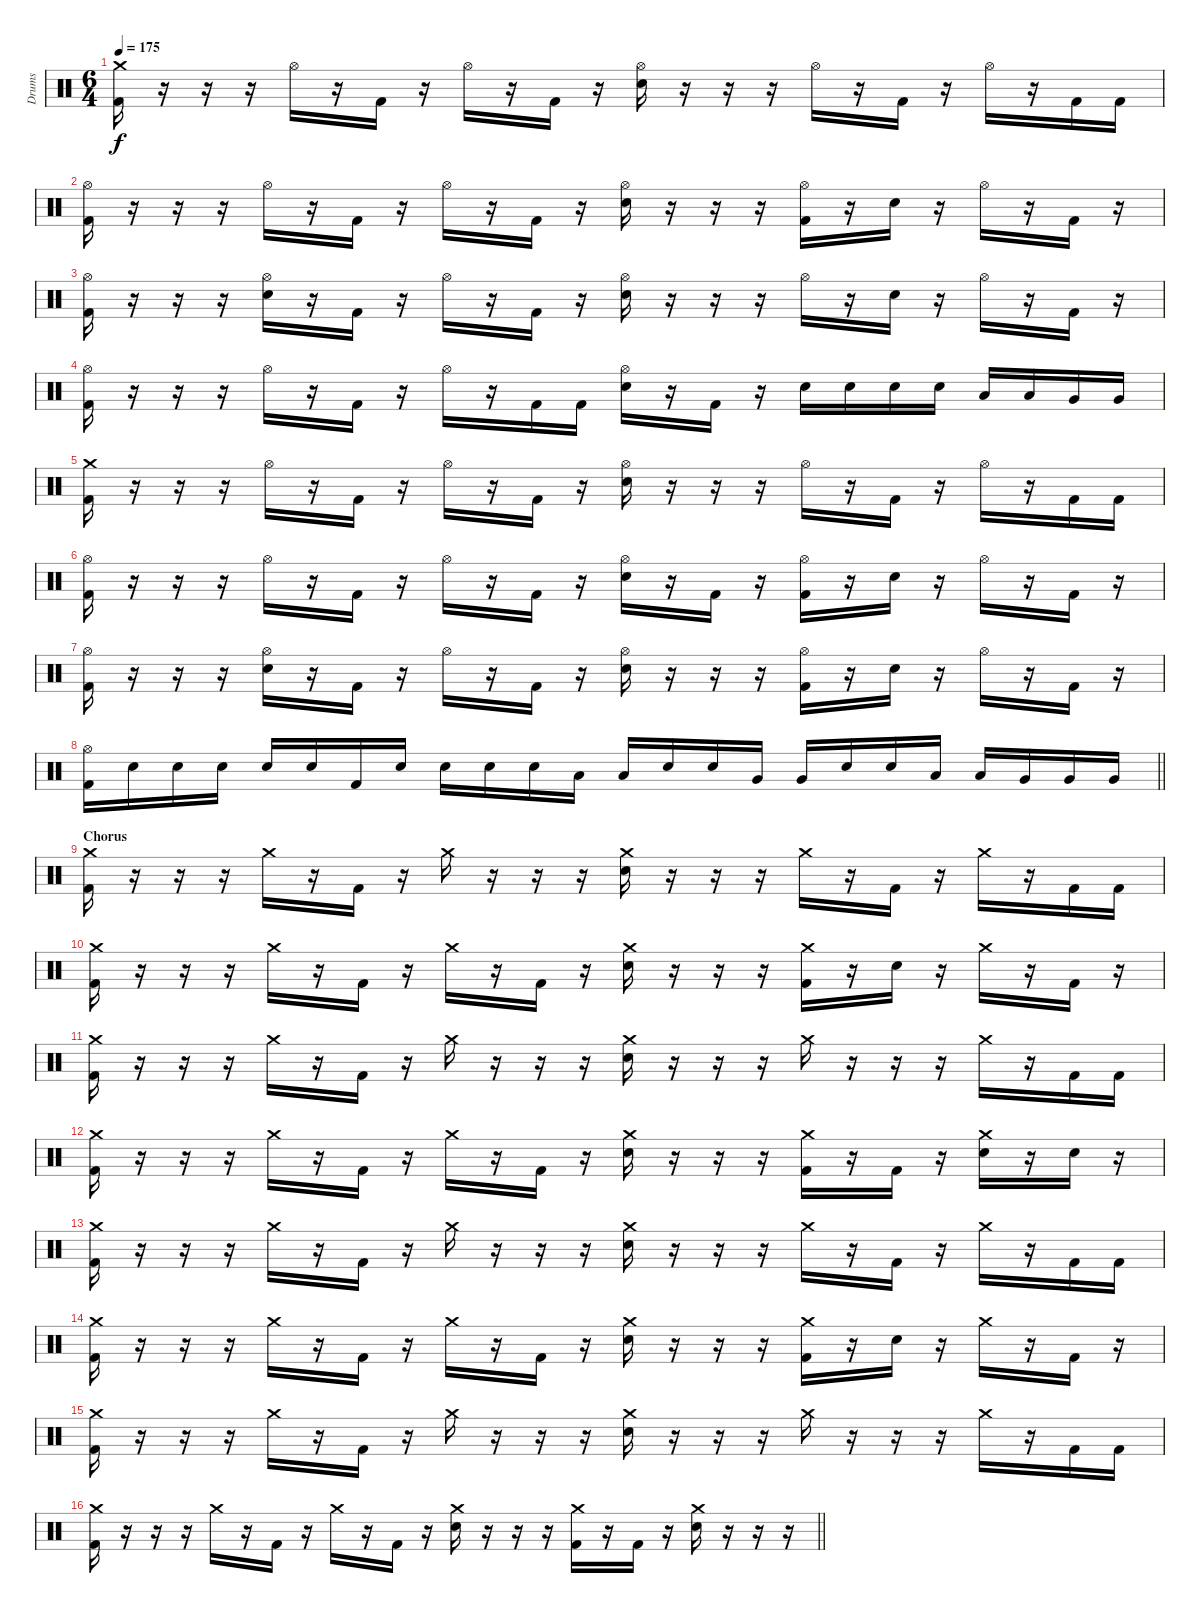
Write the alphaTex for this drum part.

\track ("Drums" "Drums") {instrument percussion}
\staff {score}
\articulation defaults
\ts (6 4)
\tempo 175
\clef neutral
\ks c
("Crash medium (hit)" "Kick (hit) 2").16{dy f} r.16 r.16 r.16 "Hi-Hat (open)".16 r.16 "Kick (hit) 2".16 r.16 "Hi-Hat (open)".16 r.16 "Kick (hit) 2".16 r.16 ("Hi-Hat (open)" "Electric Snare (hit)").16 r.16 r.16 r.16 "Hi-Hat (open)".16 r.16 "Kick (hit) 2".16 r.16 "Hi-Hat (open)".16 r.16 "Kick (hit) 2".16 "Kick (hit) 2".16 |
("Hi-Hat (open)" "Kick (hit) 2").16 r.16 r.16 r.16 "Hi-Hat (open)".16 r.16 "Kick (hit) 2".16 r.16 "Hi-Hat (open)".16 r.16 "Kick (hit) 2".16 r.16 ("Hi-Hat (open)" "Electric Snare (hit)").16 r.16 r.16 r.16 ("Hi-Hat (open)" "Kick (hit) 2").16 r.16 "Electric Snare (hit)".16 r.16 "Hi-Hat (open)".16 r.16 "Kick (hit) 2".16 r.16 |
("Hi-Hat (open)" "Kick (hit) 2").16 r.16 r.16 r.16 ("Hi-Hat (open)" "Electric Snare (hit)").16 r.16 "Kick (hit) 2".16 r.16 "Hi-Hat (open)".16 r.16 "Kick (hit) 2".16 r.16 ("Hi-Hat (open)" "Electric Snare (hit)").16 r.16 r.16 r.16 "Hi-Hat (open)".16 r.16 "Electric Snare (hit)".16 r.16 "Hi-Hat (open)".16 r.16 "Kick (hit) 2".16 r.16 |
("Hi-Hat (open)" "Kick (hit) 2").16 r.16 r.16 r.16 "Hi-Hat (open)".16 r.16 "Kick (hit) 2".16 r.16 "Hi-Hat (open)".16 r.16 "Kick (hit) 2".16 "Kick (hit) 2".16 ("Hi-Hat (open)" "Electric Snare (hit)").16 r.16 "Kick (hit) 2".16 r.16 "Electric Snare (hit)".16 "Electric Snare (hit)".16 "Electric Snare (hit)".16 "Electric Snare (hit)".16 "Low Tom (hit)".16 "Low Tom (hit)".16 "Very Low Tom (hit)".16 "Very Low Tom (hit)".16 |
("Crash medium (hit)" "Kick (hit) 2").16 r.16 r.16 r.16 "Hi-Hat (open)".16 r.16 "Kick (hit) 2".16 r.16 "Hi-Hat (open)".16 r.16 "Kick (hit) 2".16 r.16 ("Hi-Hat (open)" "Electric Snare (hit)").16 r.16 r.16 r.16 "Hi-Hat (open)".16 r.16 "Kick (hit) 2".16 r.16 "Hi-Hat (open)".16 r.16 "Kick (hit) 2".16 "Kick (hit) 2".16 |
("Hi-Hat (open)" "Kick (hit) 2").16 r.16 r.16 r.16 "Hi-Hat (open)".16 r.16 "Kick (hit) 2".16 r.16 "Hi-Hat (open)".16 r.16 "Kick (hit) 2".16 r.16 ("Hi-Hat (open)" "Electric Snare (hit)").16 r.16 "Kick (hit) 2".16 r.16 ("Hi-Hat (open)" "Kick (hit) 2").16 r.16 "Electric Snare (hit)".16 r.16 "Hi-Hat (open)".16 r.16 "Kick (hit) 2".16 r.16 |
("Hi-Hat (open)" "Kick (hit) 2").16 r.16 r.16 r.16 ("Hi-Hat (open)" "Electric Snare (hit)").16 r.16 "Kick (hit) 2".16 r.16 "Hi-Hat (open)".16 r.16 "Kick (hit) 2".16 r.16 ("Hi-Hat (open)" "Electric Snare (hit)").16 r.16 r.16 r.16 ("Hi-Hat (open)" "Kick (hit) 2").16 r.16 "Electric Snare (hit)".16 r.16 "Hi-Hat (open)".16 r.16 "Kick (hit) 2".16 r.16 |
\barLineRight lightlight
("Hi-Hat (open)" "Kick (hit) 2").16 "Electric Snare (hit)".16 "Electric Snare (hit)".16 "Electric Snare (hit)".16 "Electric Snare (hit)".16 "Electric Snare (hit)".16 "Kick (hit) 2".16 "Electric Snare (hit)".16 "Electric Snare (hit)".16 "Electric Snare (hit)".16 "Electric Snare (hit)".16 "Low Tom (hit)".16 "Low Tom (hit)".16 "Electric Snare (hit)".16 "Electric Snare (hit)".16 "Very Low Tom (hit)".16 "Very Low Tom (hit)".16 "Electric Snare (hit)".16 "Electric Snare (hit)".16 "Low Tom (hit)".16 "Low Tom (hit)".16 "Very Low Tom (hit)".16 "Very Low Tom (hit)".16 "Very Low Tom (hit)".16 |
\section ("" "Chorus")
("Crash medium (hit)" "Kick (hit) 2").16 r.16 r.16 r.16 "Crash medium (hit)".16 r.16 "Kick (hit) 2".16 r.16 "Crash medium (hit)".16 r.16 r.16 r.16 ("Crash medium (hit)" "Electric Snare (hit)").16 r.16 r.16 r.16 "Crash medium (hit)".16 r.16 "Kick (hit) 2".16 r.16 "Crash medium (hit)".16 r.16 "Kick (hit) 2".16 "Kick (hit) 2".16 |
("Crash medium (hit)" "Kick (hit) 2").16 r.16 r.16 r.16 "Crash medium (hit)".16 r.16 "Kick (hit) 2".16 r.16 "Crash medium (hit)".16 r.16 "Kick (hit) 2".16 r.16 ("Crash medium (hit)" "Electric Snare (hit)").16 r.16 r.16 r.16 ("Crash medium (hit)" "Kick (hit) 2").16 r.16 "Electric Snare (hit)".16 r.16 "Crash medium (hit)".16 r.16 "Kick (hit) 2".16 r.16 |
("Crash medium (hit)" "Kick (hit) 2").16 r.16 r.16 r.16 "Crash medium (hit)".16 r.16 "Kick (hit) 2".16 r.16 "Crash medium (hit)".16 r.16 r.16 r.16 ("Crash medium (hit)" "Electric Snare (hit)").16 r.16 r.16 r.16 "Crash medium (hit)".16 r.16 r.16 r.16 "Crash medium (hit)".16 r.16 "Kick (hit) 2".16 "Kick (hit) 2".16 |
("Crash medium (hit)" "Kick (hit) 2").16 r.16 r.16 r.16 "Crash medium (hit)".16 r.16 "Kick (hit) 2".16 r.16 "Crash medium (hit)".16 r.16 "Kick (hit) 2".16 r.16 ("Crash medium (hit)" "Electric Snare (hit)").16 r.16 r.16 r.16 ("Crash medium (hit)" "Kick (hit) 2").16 r.16 "Kick (hit) 2".16 r.16 ("Crash medium (hit)" "Electric Snare (hit)").16 r.16 "Electric Snare (hit)".16 r.16 |
("Crash medium (hit)" "Kick (hit) 2").16 r.16 r.16 r.16 "Crash medium (hit)".16 r.16 "Kick (hit) 2".16 r.16 "Crash medium (hit)".16 r.16 r.16 r.16 ("Crash medium (hit)" "Electric Snare (hit)").16 r.16 r.16 r.16 "Crash medium (hit)".16 r.16 "Kick (hit) 2".16 r.16 "Crash medium (hit)".16 r.16 "Kick (hit) 2".16 "Kick (hit) 2".16 |
("Crash medium (hit)" "Kick (hit) 2").16 r.16 r.16 r.16 "Crash medium (hit)".16 r.16 "Kick (hit) 2".16 r.16 "Crash medium (hit)".16 r.16 "Kick (hit) 2".16 r.16 ("Crash medium (hit)" "Electric Snare (hit)").16 r.16 r.16 r.16 ("Crash medium (hit)" "Kick (hit) 2").16 r.16 "Electric Snare (hit)".16 r.16 "Crash medium (hit)".16 r.16 "Kick (hit) 2".16 r.16 |
("Crash medium (hit)" "Kick (hit) 2").16 r.16 r.16 r.16 "Crash medium (hit)".16 r.16 "Kick (hit) 2".16 r.16 "Crash medium (hit)".16 r.16 r.16 r.16 ("Crash medium (hit)" "Electric Snare (hit)").16 r.16 r.16 r.16 "Crash medium (hit)".16 r.16 r.16 r.16 "Crash medium (hit)".16 r.16 "Kick (hit) 2".16 "Kick (hit) 2".16 |
\barLineRight lightlight
("Crash medium (hit)" "Kick (hit) 2").16 r.16 r.16 r.16 "Crash medium (hit)".16 r.16 "Kick (hit) 2".16 r.16 "Crash medium (hit)".16 r.16 "Kick (hit) 2".16 r.16 ("Crash medium (hit)" "Electric Snare (hit)").16 r.16 r.16 r.16 ("Crash medium (hit)" "Kick (hit) 2").16 r.16 "Kick (hit) 2".16 r.16 ("Crash medium (hit)" "Electric Snare (hit)").16 r.16 r.16 r.16
